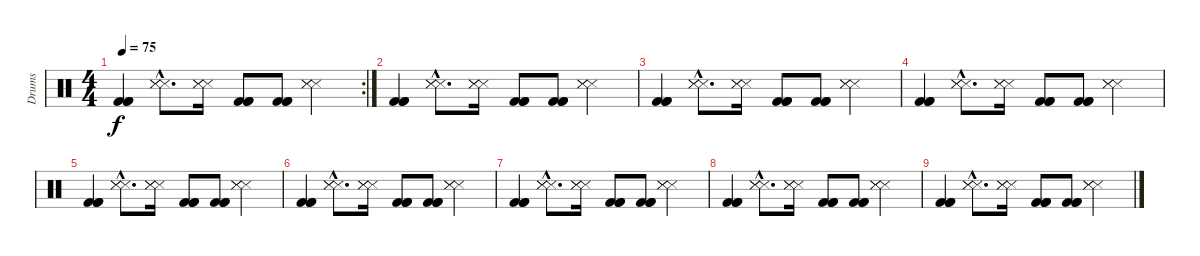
\track ("Drums" "Drums") {instrument percussion}
\staff {score}
\articulation defaults
\rc 2
\ts (4 4)
\tempo 75
\clef neutral
\ks c
("Kick (hit) 2" "Kick (hit) 2" "Kick (hit) 2").4{dy f} ("Snare (side stick) 3"{hac} "Snare (side stick) 3"{hac} "Snare (side stick) 3"{hac}).8{d} ("Snare (side stick) 3" "Snare (side stick) 3" "Snare (side stick) 3").16 ("Kick (hit) 2" "Kick (hit) 2" "Kick (hit) 2").8 ("Kick (hit) 2" "Kick (hit) 2" "Kick (hit) 2").8 ("Snare (side stick) 3" "Snare (side stick) 3" "Snare (side stick) 3").4 |
("Kick (hit) 2" "Kick (hit) 2" "Kick (hit) 2").4 ("Snare (side stick) 3"{hac} "Snare (side stick) 3"{hac} "Snare (side stick) 3"{hac}).8{d} ("Snare (side stick) 3" "Snare (side stick) 3" "Snare (side stick) 3").16 ("Kick (hit) 2" "Kick (hit) 2" "Kick (hit) 2").8 ("Kick (hit) 2" "Kick (hit) 2" "Kick (hit) 2").8 ("Snare (side stick) 3" "Snare (side stick) 3" "Snare (side stick) 3").4 |
("Kick (hit) 2" "Kick (hit) 2" "Kick (hit) 2").4 ("Snare (side stick) 3"{hac} "Snare (side stick) 3"{hac} "Snare (side stick) 3"{hac}).8{d} ("Snare (side stick) 3" "Snare (side stick) 3" "Snare (side stick) 3").16 ("Kick (hit) 2" "Kick (hit) 2" "Kick (hit) 2").8 ("Kick (hit) 2" "Kick (hit) 2" "Kick (hit) 2").8 ("Snare (side stick) 3" "Snare (side stick) 3" "Snare (side stick) 3").4 |
("Kick (hit) 2" "Kick (hit) 2" "Kick (hit) 2").4 ("Snare (side stick) 3"{hac} "Snare (side stick) 3"{hac} "Snare (side stick) 3"{hac}).8{d} ("Snare (side stick) 3" "Snare (side stick) 3" "Snare (side stick) 3").16 ("Kick (hit) 2" "Kick (hit) 2" "Kick (hit) 2").8 ("Kick (hit) 2" "Kick (hit) 2" "Kick (hit) 2").8 ("Snare (side stick) 3" "Snare (side stick) 3" "Snare (side stick) 3").4 |
("Kick (hit) 2" "Kick (hit) 2" "Kick (hit) 2").4 ("Snare (side stick) 3"{hac} "Snare (side stick) 3"{hac} "Snare (side stick) 3"{hac}).8{d} ("Snare (side stick) 3" "Snare (side stick) 3" "Snare (side stick) 3").16 ("Kick (hit) 2" "Kick (hit) 2" "Kick (hit) 2").8 ("Kick (hit) 2" "Kick (hit) 2" "Kick (hit) 2").8 ("Snare (side stick) 3" "Snare (side stick) 3" "Snare (side stick) 3").4 |
("Kick (hit) 2" "Kick (hit) 2" "Kick (hit) 2").4 ("Snare (side stick) 3"{hac} "Snare (side stick) 3"{hac} "Snare (side stick) 3"{hac}).8{d} ("Snare (side stick) 3" "Snare (side stick) 3" "Snare (side stick) 3").16 ("Kick (hit) 2" "Kick (hit) 2" "Kick (hit) 2").8 ("Kick (hit) 2" "Kick (hit) 2" "Kick (hit) 2").8 ("Snare (side stick) 3" "Snare (side stick) 3" "Snare (side stick) 3").4 |
("Kick (hit) 2" "Kick (hit) 2" "Kick (hit) 2").4 ("Snare (side stick) 3"{hac} "Snare (side stick) 3"{hac} "Snare (side stick) 3"{hac}).8{d} ("Snare (side stick) 3" "Snare (side stick) 3" "Snare (side stick) 3").16 ("Kick (hit) 2" "Kick (hit) 2" "Kick (hit) 2").8 ("Kick (hit) 2" "Kick (hit) 2" "Kick (hit) 2").8 ("Snare (side stick) 3" "Snare (side stick) 3" "Snare (side stick) 3").4 |
("Kick (hit) 2" "Kick (hit) 2" "Kick (hit) 2").4 ("Snare (side stick) 3"{hac} "Snare (side stick) 3"{hac} "Snare (side stick) 3"{hac}).8{d} ("Snare (side stick) 3" "Snare (side stick) 3" "Snare (side stick) 3").16 ("Kick (hit) 2" "Kick (hit) 2" "Kick (hit) 2").8 ("Kick (hit) 2" "Kick (hit) 2" "Kick (hit) 2").8 ("Snare (side stick) 3" "Snare (side stick) 3" "Snare (side stick) 3").4 |
("Kick (hit) 2" "Kick (hit) 2" "Kick (hit) 2").4 ("Snare (side stick) 3"{hac} "Snare (side stick) 3"{hac} "Snare (side stick) 3"{hac}).8{d} ("Snare (side stick) 3" "Snare (side stick) 3" "Snare (side stick) 3").16 ("Kick (hit) 2" "Kick (hit) 2" "Kick (hit) 2").8 ("Kick (hit) 2" "Kick (hit) 2" "Kick (hit) 2").8 ("Snare (side stick) 3" "Snare (side stick) 3" "Snare (side stick) 3").4
